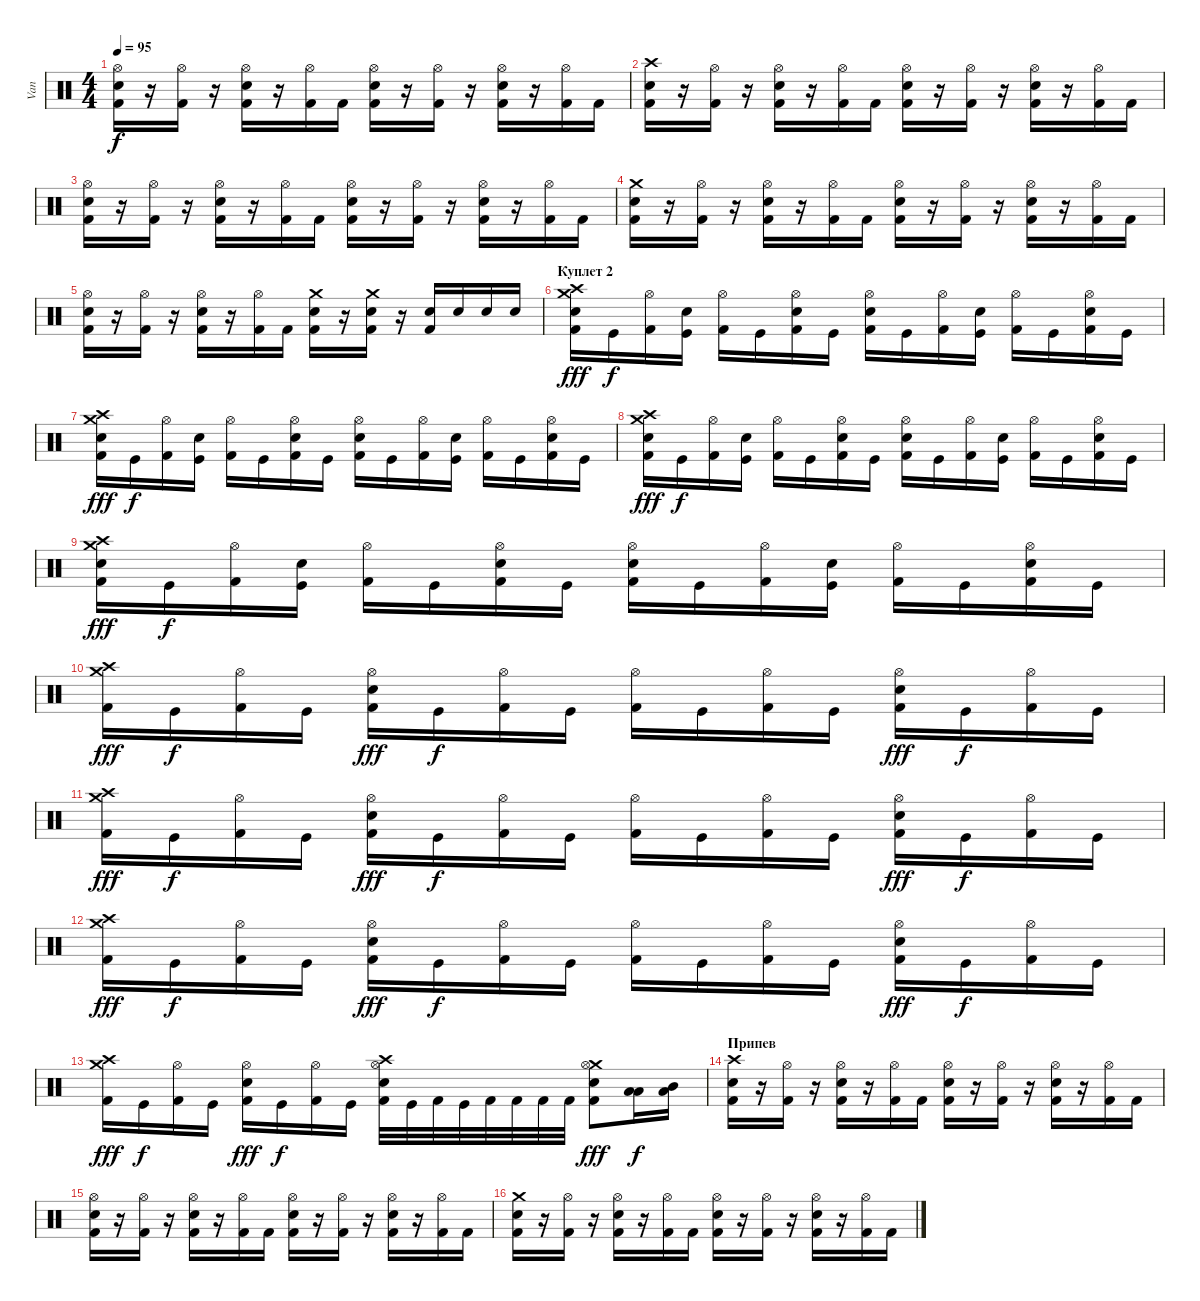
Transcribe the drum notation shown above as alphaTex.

\track ("Van" "Van") {instrument percussion}
\staff {score}
\articulation defaults
\ts (4 4)
\tempo 95
\clef neutral
\ks c
("Hi-Hat (open)" "Electric Snare (hit)" "Kick (hit) 2").16{dy f} r.16 ("Hi-Hat (open)" "Kick (hit) 2").16 r.16 ("Hi-Hat (open)" "Electric Snare (hit)" "Kick (hit) 2").16 r.16 ("Hi-Hat (open)" "Kick (hit) 2").16 "Kick (hit) 2".16 ("Hi-Hat (open)" "Electric Snare (hit)" "Kick (hit) 2").16 r.16 ("Hi-Hat (open)" "Kick (hit) 2").16 r.16 ("Hi-Hat (open)" "Electric Snare (hit)" "Kick (hit) 2").16 r.16 ("Hi-Hat (open)" "Kick (hit) 2").16 "Kick (hit) 2".16 |
("Crash high (hit)" "Electric Snare (hit)" "Kick (hit) 2").16 r.16 ("Hi-Hat (open)" "Kick (hit) 2").16 r.16 ("Hi-Hat (open)" "Electric Snare (hit)" "Kick (hit) 2").16 r.16 ("Hi-Hat (open)" "Kick (hit) 2").16 "Kick (hit) 2".16 ("Hi-Hat (open)" "Electric Snare (hit)" "Kick (hit) 2").16 r.16 ("Hi-Hat (open)" "Kick (hit) 2").16 r.16 ("Hi-Hat (open)" "Electric Snare (hit)" "Kick (hit) 2").16 r.16 ("Hi-Hat (open)" "Kick (hit) 2").16 "Kick (hit) 2".16 |
("Hi-Hat (open)" "Electric Snare (hit)" "Kick (hit) 2").16 r.16 ("Hi-Hat (open)" "Kick (hit) 2").16 r.16 ("Hi-Hat (open)" "Electric Snare (hit)" "Kick (hit) 2").16 r.16 ("Hi-Hat (open)" "Kick (hit) 2").16 "Kick (hit) 2".16 ("Hi-Hat (open)" "Electric Snare (hit)" "Kick (hit) 2").16 r.16 ("Hi-Hat (open)" "Kick (hit) 2").16 r.16 ("Hi-Hat (open)" "Electric Snare (hit)" "Kick (hit) 2").16 r.16 ("Hi-Hat (open)" "Kick (hit) 2").16 "Kick (hit) 2".16 |
("Crash medium (hit)" "Electric Snare (hit)" "Kick (hit) 2").16 r.16 ("Hi-Hat (open)" "Kick (hit) 2").16 r.16 ("Hi-Hat (open)" "Electric Snare (hit)" "Kick (hit) 2").16 r.16 ("Hi-Hat (open)" "Kick (hit) 2").16 "Kick (hit) 2".16 ("Hi-Hat (open)" "Electric Snare (hit)" "Kick (hit) 2").16 r.16 ("Hi-Hat (open)" "Kick (hit) 2").16 r.16 ("Hi-Hat (open)" "Electric Snare (hit)" "Kick (hit) 2").16 r.16 ("Hi-Hat (open)" "Kick (hit) 2").16 "Kick (hit) 2".16 |
("Hi-Hat (open)" "Electric Snare (hit)" "Kick (hit) 2").16 r.16 ("Hi-Hat (open)" "Kick (hit) 2").16 r.16 ("Hi-Hat (open)" "Electric Snare (hit)" "Kick (hit) 2").16 r.16 ("Hi-Hat (open)" "Kick (hit) 2").16 "Kick (hit) 2".16 ("Crash medium (hit)" "Electric Snare (hit)" "Kick (hit) 2").16 r.16 ("Crash medium (hit)" "Electric Snare (hit)" "Kick (hit) 2").16 r.16 ("Electric Snare (hit)" "Kick (hit) 2").16 "Electric Snare (hit)".16 "Electric Snare (hit)".16 "Electric Snare (hit)".16 |
\section ("" "Куплет 2")
("Crash high (hit)" "Crash medium (hit)" "Electric Snare (hit)" "Kick (hit) 2").16{dy fff} "Kick (hit)".16{dy f} ("Hi-Hat (open)" "Kick (hit) 2").16 ("Electric Snare (hit)" "Kick (hit)").16 ("Hi-Hat (open)" "Kick (hit) 2").16 "Kick (hit)".16 ("Hi-Hat (open)" "Electric Snare (hit)" "Kick (hit) 2").16 "Kick (hit)".16 ("Hi-Hat (open)" "Electric Snare (hit)" "Kick (hit) 2").16 "Kick (hit)".16 ("Hi-Hat (open)" "Kick (hit) 2").16 ("Electric Snare (hit)" "Kick (hit)").16 ("Hi-Hat (open)" "Kick (hit) 2").16 "Kick (hit)".16 ("Hi-Hat (open)" "Electric Snare (hit)" "Kick (hit) 2").16 "Kick (hit)".16 |
("Crash high (hit)" "Crash medium (hit)" "Electric Snare (hit)" "Kick (hit) 2").16{dy fff} "Kick (hit)".16{dy f} ("Hi-Hat (open)" "Kick (hit) 2").16 ("Electric Snare (hit)" "Kick (hit)").16 ("Hi-Hat (open)" "Kick (hit) 2").16 "Kick (hit)".16 ("Hi-Hat (open)" "Electric Snare (hit)" "Kick (hit) 2").16 "Kick (hit)".16 ("Hi-Hat (open)" "Electric Snare (hit)" "Kick (hit) 2").16 "Kick (hit)".16 ("Hi-Hat (open)" "Kick (hit) 2").16 ("Electric Snare (hit)" "Kick (hit)").16 ("Hi-Hat (open)" "Kick (hit) 2").16 "Kick (hit)".16 ("Hi-Hat (open)" "Electric Snare (hit)" "Kick (hit) 2").16 "Kick (hit)".16 |
("Crash high (hit)" "Crash medium (hit)" "Electric Snare (hit)" "Kick (hit) 2").16{dy fff} "Kick (hit)".16{dy f} ("Hi-Hat (open)" "Kick (hit) 2").16 ("Electric Snare (hit)" "Kick (hit)").16 ("Hi-Hat (open)" "Kick (hit) 2").16 "Kick (hit)".16 ("Hi-Hat (open)" "Electric Snare (hit)" "Kick (hit) 2").16 "Kick (hit)".16 ("Hi-Hat (open)" "Electric Snare (hit)" "Kick (hit) 2").16 "Kick (hit)".16 ("Hi-Hat (open)" "Kick (hit) 2").16 ("Electric Snare (hit)" "Kick (hit)").16 ("Hi-Hat (open)" "Kick (hit) 2").16 "Kick (hit)".16 ("Hi-Hat (open)" "Electric Snare (hit)" "Kick (hit) 2").16 "Kick (hit)".16 |
("Crash high (hit)" "Crash medium (hit)" "Electric Snare (hit)" "Kick (hit) 2").16{dy fff} "Kick (hit)".16{dy f} ("Hi-Hat (open)" "Kick (hit) 2").16 ("Electric Snare (hit)" "Kick (hit)").16 ("Hi-Hat (open)" "Kick (hit) 2").16 "Kick (hit)".16 ("Hi-Hat (open)" "Electric Snare (hit)" "Kick (hit) 2").16 "Kick (hit)".16 ("Hi-Hat (open)" "Electric Snare (hit)" "Kick (hit) 2").16 "Kick (hit)".16 ("Hi-Hat (open)" "Kick (hit) 2").16 ("Electric Snare (hit)" "Kick (hit)").16 ("Hi-Hat (open)" "Kick (hit) 2").16 "Kick (hit)".16 ("Hi-Hat (open)" "Electric Snare (hit)" "Kick (hit) 2").16 "Kick (hit)".16 |
("Crash high (hit)" "Crash medium (hit)" "Kick (hit) 2").16{dy fff} "Kick (hit)".16{dy f} ("Hi-Hat (open)" "Kick (hit) 2").16 "Kick (hit)".16 ("Hi-Hat (open)" "Electric Snare (hit)" "Kick (hit) 2").16{dy fff} "Kick (hit)".16{dy f} ("Hi-Hat (open)" "Kick (hit) 2").16 "Kick (hit)".16 ("Hi-Hat (open)" "Kick (hit) 2").16 "Kick (hit)".16 ("Hi-Hat (open)" "Kick (hit) 2").16 "Kick (hit)".16 ("Hi-Hat (open)" "Electric Snare (hit)" "Kick (hit) 2").16{dy fff} "Kick (hit)".16{dy f} ("Hi-Hat (open)" "Kick (hit) 2").16 "Kick (hit)".16 |
("Crash high (hit)" "Crash medium (hit)" "Kick (hit) 2").16{dy fff} "Kick (hit)".16{dy f} ("Hi-Hat (open)" "Kick (hit) 2").16 "Kick (hit)".16 ("Hi-Hat (open)" "Electric Snare (hit)" "Kick (hit) 2").16{dy fff} "Kick (hit)".16{dy f} ("Hi-Hat (open)" "Kick (hit) 2").16 "Kick (hit)".16 ("Hi-Hat (open)" "Kick (hit) 2").16 "Kick (hit)".16 ("Hi-Hat (open)" "Kick (hit) 2").16 "Kick (hit)".16 ("Hi-Hat (open)" "Electric Snare (hit)" "Kick (hit) 2").16{dy fff} "Kick (hit)".16{dy f} ("Hi-Hat (open)" "Kick (hit) 2").16 "Kick (hit)".16 |
("Crash high (hit)" "Crash medium (hit)" "Kick (hit) 2").16{dy fff} "Kick (hit)".16{dy f} ("Hi-Hat (open)" "Kick (hit) 2").16 "Kick (hit)".16 ("Hi-Hat (open)" "Electric Snare (hit)" "Kick (hit) 2").16{dy fff} "Kick (hit)".16{dy f} ("Hi-Hat (open)" "Kick (hit) 2").16 "Kick (hit)".16 ("Hi-Hat (open)" "Kick (hit) 2").16 "Kick (hit)".16 ("Hi-Hat (open)" "Kick (hit) 2").16 "Kick (hit)".16 ("Hi-Hat (open)" "Electric Snare (hit)" "Kick (hit) 2").16{dy fff} "Kick (hit)".16{dy f} ("Hi-Hat (open)" "Kick (hit) 2").16 "Kick (hit)".16 |
("Crash high (hit)" "Crash medium (hit)" "Kick (hit) 2").16{dy fff} "Kick (hit)".16{dy f} ("Hi-Hat (open)" "Kick (hit) 2").16 "Kick (hit)".16 ("Hi-Hat (open)" "Electric Snare (hit)" "Kick (hit) 2").16{dy fff} "Kick (hit)".16{dy f} ("Hi-Hat (open)" "Kick (hit) 2").16 "Kick (hit)".16 ("Crash high (hit)" "Hi-Hat (open)" "Electric Snare (hit)" "Kick (hit) 2").32 "Kick (hit)".32 "Kick (hit) 2".32 "Kick (hit)".32 "Kick (hit) 2".32 "Kick (hit) 2".32 "Kick (hit) 2".32 "Kick (hit) 2".32 ("Crash medium (hit)" "Hi-Hat (open)" "Electric Snare (hit)" "Kick (hit) 2").8{dy fff} ("Low Tom (hit)" "Low Floor Tom (hit)").16{dy f} ("Mid Tom (hit)" "Low Floor Tom (hit)").16 |
\section ("" "Припев")
("Crash high (hit)" "Electric Snare (hit)" "Kick (hit) 2").16 r.16 ("Hi-Hat (open)" "Kick (hit) 2").16 r.16 ("Hi-Hat (open)" "Electric Snare (hit)" "Kick (hit) 2").16 r.16 ("Hi-Hat (open)" "Kick (hit) 2").16 "Kick (hit) 2".16 ("Hi-Hat (open)" "Electric Snare (hit)" "Kick (hit) 2").16 r.16 ("Hi-Hat (open)" "Kick (hit) 2").16 r.16 ("Hi-Hat (open)" "Electric Snare (hit)" "Kick (hit) 2").16 r.16 ("Hi-Hat (open)" "Kick (hit) 2").16 "Kick (hit) 2".16 |
("Hi-Hat (open)" "Electric Snare (hit)" "Kick (hit) 2").16 r.16 ("Hi-Hat (open)" "Kick (hit) 2").16 r.16 ("Hi-Hat (open)" "Electric Snare (hit)" "Kick (hit) 2").16 r.16 ("Hi-Hat (open)" "Kick (hit) 2").16 "Kick (hit) 2".16 ("Hi-Hat (open)" "Electric Snare (hit)" "Kick (hit) 2").16 r.16 ("Hi-Hat (open)" "Kick (hit) 2").16 r.16 ("Hi-Hat (open)" "Electric Snare (hit)" "Kick (hit) 2").16 r.16 ("Hi-Hat (open)" "Kick (hit) 2").16 "Kick (hit) 2".16 |
("Crash medium (hit)" "Electric Snare (hit)" "Kick (hit) 2").16 r.16 ("Hi-Hat (open)" "Kick (hit) 2").16 r.16 ("Hi-Hat (open)" "Electric Snare (hit)" "Kick (hit) 2").16 r.16 ("Hi-Hat (open)" "Kick (hit) 2").16 "Kick (hit) 2".16 ("Hi-Hat (open)" "Electric Snare (hit)" "Kick (hit) 2").16 r.16 ("Hi-Hat (open)" "Kick (hit) 2").16 r.16 ("Hi-Hat (open)" "Electric Snare (hit)" "Kick (hit) 2").16 r.16 ("Hi-Hat (open)" "Kick (hit) 2").16 "Kick (hit) 2".16
